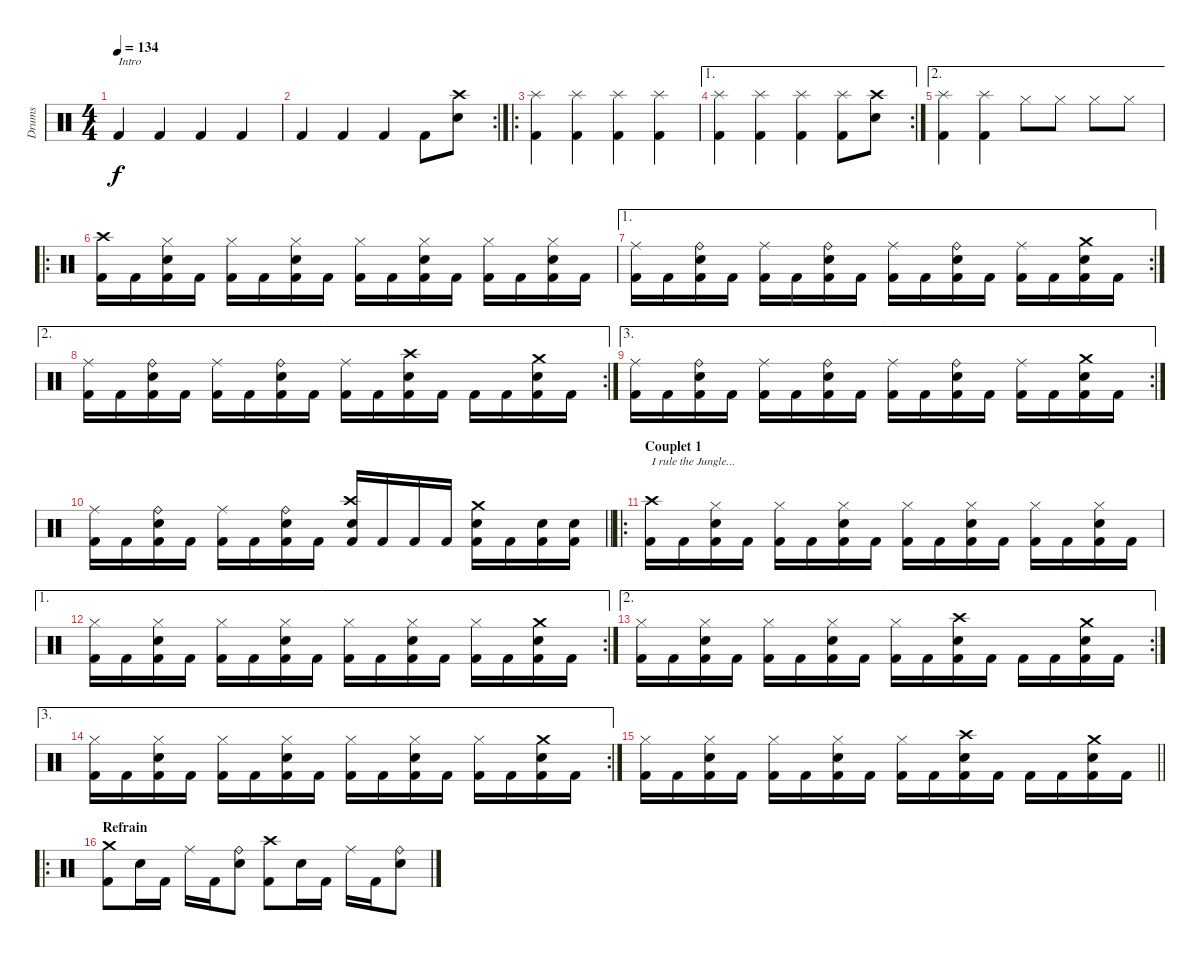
\track ("Drums" "Drums") {instrument percussion}
\staff {score}
\articulation defaults
\ts (4 4)
\tempo 134
\clef neutral
\ks c "Kick (hit) 2".4{txt "Intro" dy f} "Kick (hit) 2".4 "Kick (hit) 2".4 "Kick (hit) 2".4
|
\rc 2 "Kick (hit) 2".4 "Kick (hit) 2".4 "Kick (hit) 2".4 "Kick (hit) 2".8
("Crash high (hit)" "Electric Snare (hit)").8 |
\ro
("Splash (hit)" "Kick (hit) 2").4 ("Splash (hit)" "Kick (hit) 2").4 ("Splash (hit)" "Kick (hit) 2").4 ("Splash (hit)" "Kick (hit) 2").4 |
\ae 1
\rc 2
("Splash (hit)" "Kick (hit) 2").4 ("Splash (hit)" "Kick (hit) 2").4 ("Splash (hit)" "Kick (hit) 2").4 ("Splash (hit)" "Kick (hit) 2").8 ("Crash high (hit)" "Electric Snare (hit)").8 |
\ae 2
("Splash (hit)" "Kick (hit) 2").4 ("Splash (hit)" "Kick (hit) 2").4 "Hi-Hat (closed)".8 "Hi-Hat (closed)".8 "Hi-Hat (closed)".8 "Hi-Hat (closed)".8 |
\ro
("Crash high (hit)" "Kick (hit) 2").16 "Kick (hit) 2".16 ("Hi-Hat (closed)" "Electric Snare (hit)" "Kick (hit) 2").16 "Kick (hit) 2".16 ("Hi-Hat (closed)" "Kick (hit) 2").16 "Kick (hit) 2".16 ("Hi-Hat (closed)" "Electric Snare (hit)" "Kick (hit) 2").16 "Kick (hit) 2".16 ("Hi-Hat (closed)" "Kick (hit) 2").16 "Kick (hit) 2".16 ("Hi-Hat (closed)" "Electric Snare (hit)" "Kick (hit) 2").16 "Kick (hit) 2".16 ("Hi-Hat (closed)" "Kick (hit) 2").16 "Kick (hit) 2".16 ("Hi-Hat (closed)" "Electric Snare (hit)" "Kick (hit) 2").16 "Kick (hit) 2".16 |
\ae 1
\rc 2
("Ride (middle)" "Kick (hit) 2").16 "Kick (hit) 2".16 ("Ride (bell)" "Electric Snare (hit)" "Kick (hit) 2").16 "Kick (hit) 2".16 ("Ride (middle)" "Kick (hit) 2").16 "Kick (hit) 2".16 ("Ride (bell)" "Electric Snare (hit)" "Kick (hit) 2").16 "Kick (hit) 2".16 ("Ride (middle)" "Kick (hit) 2").16 "Kick (hit) 2".16 ("Ride (bell)" "Electric Snare (hit)" "Kick (hit) 2").16 "Kick (hit) 2".16 ("Ride (middle)" "Kick (hit) 2").16 "Kick (hit) 2".16 ("Crash medium (hit)" "Electric Snare (hit)" "Kick (hit) 2").16 "Kick (hit) 2".16 |
\ae 2
\rc 2
("Ride (middle)" "Kick (hit) 2").16 "Kick (hit) 2".16 ("Ride (bell)" "Electric Snare (hit)" "Kick (hit) 2").16 "Kick (hit) 2".16 ("Ride (middle)" "Kick (hit) 2").16 "Kick (hit) 2".16 ("Ride (bell)" "Electric Snare (hit)" "Kick (hit) 2").16 "Kick (hit) 2".16 ("Ride (middle)" "Kick (hit) 2").16 "Kick (hit) 2".16 ("Crash high (hit)" "Electric Snare (hit)" "Kick (hit) 2").16 "Kick (hit) 2".16 "Kick (hit) 2".16 "Kick (hit) 2".16 ("Crash medium (hit)" "Electric Snare (hit)" "Kick (hit) 2").16 "Kick (hit) 2".16 |
\ae 3
\rc 2
("Ride (middle)" "Kick (hit) 2").16 "Kick (hit) 2".16 ("Ride (bell)" "Electric Snare (hit)" "Kick (hit) 2").16 "Kick (hit) 2".16 ("Ride (middle)" "Kick (hit) 2").16 "Kick (hit) 2".16 ("Ride (bell)" "Electric Snare (hit)" "Kick (hit) 2").16 "Kick (hit) 2".16 ("Ride (middle)" "Kick (hit) 2").16 "Kick (hit) 2".16 ("Ride (bell)" "Electric Snare (hit)" "Kick (hit) 2").16 "Kick (hit) 2".16 ("Ride (middle)" "Kick (hit) 2").16 "Kick (hit) 2".16 ("Crash medium (hit)" "Electric Snare (hit)" "Kick (hit) 2").16 "Kick (hit) 2".16 |
\barLineRight lightlight
("Ride (middle)" "Kick (hit) 2").16 "Kick (hit) 2".16 ("Ride (bell)" "Electric Snare (hit)" "Kick (hit) 2").16 "Kick (hit) 2".16 ("Ride (middle)" "Kick (hit) 2").16 "Kick (hit) 2".16 ("Ride (bell)" "Electric Snare (hit)" "Kick (hit) 2").16 "Kick (hit) 2".16 ("Crash high (hit)" "Electric Snare (hit)" "Kick (hit) 2").16 "Kick (hit) 2".16 "Kick (hit) 2".16 "Kick (hit) 2".16 ("Crash medium (hit)" "Electric Snare (hit)" "Kick (hit) 2").16 "Kick (hit) 2".16 ("Electric Snare (hit)" "Kick (hit) 2").16 ("Electric Snare (hit)" "Kick (hit) 2").16 |
\ro
\section ("" "Couplet 1")
("Crash high (hit)" "Kick (hit) 2").16{txt "I rule the Jungle..."} "Kick (hit) 2".16 ("Hi-Hat (closed)" "Electric Snare (hit)" "Kick (hit) 2").16 "Kick (hit) 2".16 ("Hi-Hat (closed)" "Kick (hit) 2").16 "Kick (hit) 2".16 ("Hi-Hat (closed)" "Electric Snare (hit)" "Kick (hit) 2").16 "Kick (hit) 2".16 ("Hi-Hat (closed)" "Kick (hit) 2").16 "Kick (hit) 2".16 ("Hi-Hat (closed)" "Electric Snare (hit)" "Kick (hit) 2").16 "Kick (hit) 2".16 ("Hi-Hat (closed)" "Kick (hit) 2").16 "Kick (hit) 2".16 ("Hi-Hat (closed)" "Electric Snare (hit)" "Kick (hit) 2").16 "Kick (hit) 2".16 |
\ae 1
\rc 2
("Hi-Hat (closed)" "Kick (hit) 2").16 "Kick (hit) 2".16 ("Hi-Hat (closed)" "Electric Snare (hit)" "Kick (hit) 2").16 "Kick (hit) 2".16 ("Hi-Hat (closed)" "Kick (hit) 2").16 "Kick (hit) 2".16 ("Hi-Hat (closed)" "Electric Snare (hit)" "Kick (hit) 2").16 "Kick (hit) 2".16 ("Hi-Hat (closed)" "Kick (hit) 2").16 "Kick (hit) 2".16 ("Hi-Hat (closed)" "Electric Snare (hit)" "Kick (hit) 2").16 "Kick (hit) 2".16 ("Hi-Hat (closed)" "Kick (hit) 2").16 "Kick (hit) 2".16 ("Crash medium (hit)" "Electric Snare (hit)" "Kick (hit) 2").16 "Kick (hit) 2".16 |
\ae 2
\rc 2
("Hi-Hat (closed)" "Kick (hit) 2").16 "Kick (hit) 2".16 ("Hi-Hat (closed)" "Electric Snare (hit)" "Kick (hit) 2").16 "Kick (hit) 2".16 ("Hi-Hat (closed)" "Kick (hit) 2").16 "Kick (hit) 2".16 ("Hi-Hat (closed)" "Electric Snare (hit)" "Kick (hit) 2").16 "Kick (hit) 2".16 ("Hi-Hat (closed)" "Kick (hit) 2").16 "Kick (hit) 2".16 ("Crash high (hit)" "Electric Snare (hit)" "Kick (hit) 2").16 "Kick (hit) 2".16 "Kick (hit) 2".16 "Kick (hit) 2".16 ("Crash medium (hit)" "Electric Snare (hit)" "Kick (hit) 2").16 "Kick (hit) 2".16 |
\ae 3
\rc 2
("Hi-Hat (closed)" "Kick (hit) 2").16 "Kick (hit) 2".16 ("Hi-Hat (closed)" "Electric Snare (hit)" "Kick (hit) 2").16 "Kick (hit) 2".16 ("Hi-Hat (closed)" "Kick (hit) 2").16 "Kick (hit) 2".16 ("Hi-Hat (closed)" "Electric Snare (hit)" "Kick (hit) 2").16 "Kick (hit) 2".16 ("Hi-Hat (closed)" "Kick (hit) 2").16 "Kick (hit) 2".16 ("Hi-Hat (closed)" "Electric Snare (hit)" "Kick (hit) 2").16 "Kick (hit) 2".16 ("Hi-Hat (closed)" "Kick (hit) 2").16 "Kick (hit) 2".16 ("Crash medium (hit)" "Electric Snare (hit)" "Kick (hit) 2").16 "Kick (hit) 2".16 |
\barLineRight lightlight
("Hi-Hat (closed)" "Kick (hit) 2").16 "Kick (hit) 2".16 ("Hi-Hat (closed)" "Electric Snare (hit)" "Kick (hit) 2").16 "Kick (hit) 2".16 ("Hi-Hat (closed)" "Kick (hit) 2").16 "Kick (hit) 2".16 ("Hi-Hat (closed)" "Electric Snare (hit)" "Kick (hit) 2").16 "Kick (hit) 2".16 ("Hi-Hat (closed)" "Kick (hit) 2").16 "Kick (hit) 2".16 ("Crash high (hit)" "Electric Snare (hit)" "Kick (hit) 2").16 "Kick (hit) 2".16 "Kick (hit) 2".16 "Kick (hit) 2".16 ("Crash medium (hit)" "Electric Snare (hit)" "Kick (hit) 2").16 "Kick (hit) 2".16 |
\ro
\section ("" "Refrain")
("Crash medium (hit)" "Kick (hit) 2").8 "Electric Snare (hit)".16 "Kick (hit) 2".16 "Ride (middle)".16 "Kick (hit) 2".16 ("Ride (bell)" "Electric Snare (hit)").8 ("Crash high (hit)" "Kick (hit) 2").8 "Electric Snare (hit)".16 "Kick (hit) 2".16 "Ride (middle)".16 "Kick (hit) 2".16 ("Ride (bell)" "Electric Snare (hit)").8
